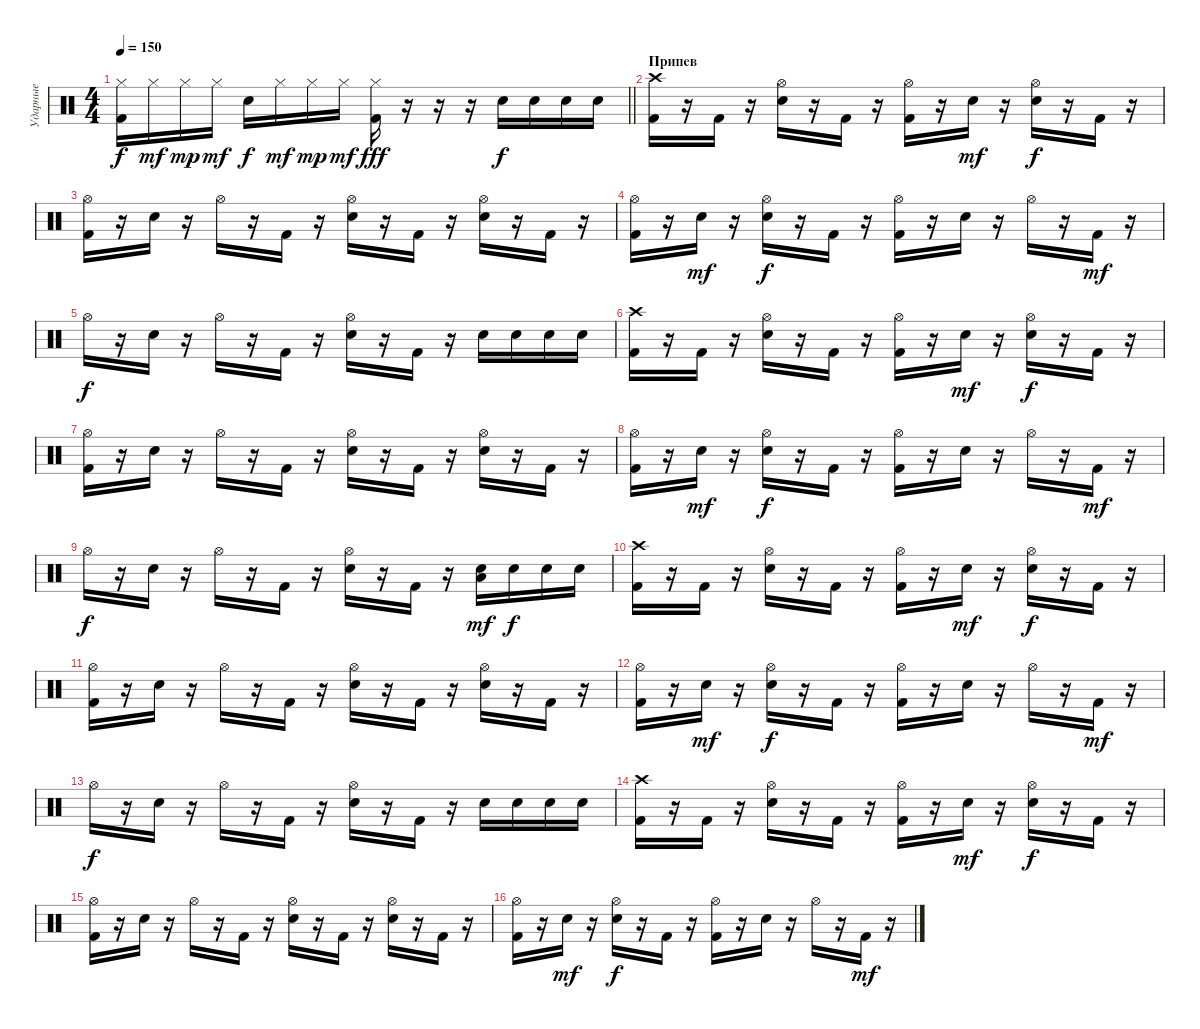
\track ("Ударные" "Ударные") {instrument percussion}
\staff {score}
\articulation defaults
\ts (4 4)
\tempo 150
\clef neutral
\barLineRight lightlight
\ks c
("Hi-Hat (closed)" "Kick (hit) 2").16{dy f} "Hi-Hat (closed)".16{dy mf} "Hi-Hat (closed)".16{dy mp} "Hi-Hat (closed)".16{dy mf} "Electric Snare (hit)".16{dy f} "Hi-Hat (closed)".16{dy mf} "Hi-Hat (closed)".16{dy mp} "Hi-Hat (closed)".16{dy mf} ("Hi-Hat (closed)" "Kick (hit) 2").16{dy fff} r.16 r.16 r.16 "Electric Snare (hit)".16{dy f} "Electric Snare (hit)".16 "Electric Snare (hit)".16 "Electric Snare (hit)".16 |
\section ("" "Припев")
("Crash high (hit)" "Kick (hit) 2").16 r.16 "Kick (hit) 2".16 r.16 ("Hi-Hat (open)" "Electric Snare (hit)").16 r.16 "Kick (hit) 2".16 r.16 ("Hi-Hat (open)" "Kick (hit) 2").16 r.16 "Electric Snare (hit)".16{dy mf} r.16 ("Hi-Hat (open)" "Electric Snare (hit)").16{dy f} r.16 "Kick (hit) 2".16 r.16 |
("Hi-Hat (open)" "Kick (hit) 2").16 r.16 "Electric Snare (hit)".16 r.16 "Hi-Hat (open)".16 r.16 "Kick (hit) 2".16 r.16 ("Hi-Hat (open)" "Electric Snare (hit)").16 r.16 "Kick (hit) 2".16 r.16 ("Hi-Hat (open)" "Electric Snare (hit)").16 r.16 "Kick (hit) 2".16 r.16 |
("Hi-Hat (open)" "Kick (hit) 2").16 r.16 "Electric Snare (hit)".16{dy mf} r.16 ("Hi-Hat (open)" "Electric Snare (hit)").16{dy f} r.16 "Kick (hit) 2".16 r.16 ("Hi-Hat (open)" "Kick (hit) 2").16 r.16 "Electric Snare (hit)".16 r.16 "Hi-Hat (open)".16 r.16 "Kick (hit) 2".16{dy mf} r.16 |
"Hi-Hat (open)".16{dy f} r.16 "Electric Snare (hit)".16 r.16 "Hi-Hat (open)".16 r.16 "Kick (hit) 2".16 r.16 ("Hi-Hat (open)" "Electric Snare (hit)").16 r.16 "Kick (hit) 2".16 r.16 "Electric Snare (hit)".16 "Electric Snare (hit)".16 "Electric Snare (hit)".16 "Electric Snare (hit)".16 |
("Crash high (hit)" "Kick (hit) 2").16 r.16 "Kick (hit) 2".16 r.16 ("Hi-Hat (open)" "Electric Snare (hit)").16 r.16 "Kick (hit) 2".16 r.16 ("Hi-Hat (open)" "Kick (hit) 2").16 r.16 "Electric Snare (hit)".16{dy mf} r.16 ("Hi-Hat (open)" "Electric Snare (hit)").16{dy f} r.16 "Kick (hit) 2".16 r.16 |
("Hi-Hat (open)" "Kick (hit) 2").16 r.16 "Electric Snare (hit)".16 r.16 "Hi-Hat (open)".16 r.16 "Kick (hit) 2".16 r.16 ("Hi-Hat (open)" "Electric Snare (hit)").16 r.16 "Kick (hit) 2".16 r.16 ("Hi-Hat (open)" "Electric Snare (hit)").16 r.16 "Kick (hit) 2".16 r.16 |
("Hi-Hat (open)" "Kick (hit) 2").16 r.16 "Electric Snare (hit)".16{dy mf} r.16 ("Hi-Hat (open)" "Electric Snare (hit)").16{dy f} r.16 "Kick (hit) 2".16 r.16 ("Hi-Hat (open)" "Kick (hit) 2").16 r.16 "Electric Snare (hit)".16 r.16 "Hi-Hat (open)".16 r.16 "Kick (hit) 2".16{dy mf} r.16 |
"Hi-Hat (open)".16{dy f} r.16 "Electric Snare (hit)".16 r.16 "Hi-Hat (open)".16 r.16 "Kick (hit) 2".16 r.16 ("Hi-Hat (open)" "Electric Snare (hit)").16 r.16 "Kick (hit) 2".16 r.16 ("Low Tom (hit)" "Electric Snare (hit)").16{dy mf} "Electric Snare (hit)".16{dy f} "Electric Snare (hit)".16 "Electric Snare (hit)".16 |
("Crash high (hit)" "Kick (hit) 2").16 r.16 "Kick (hit) 2".16 r.16 ("Hi-Hat (open)" "Electric Snare (hit)").16 r.16 "Kick (hit) 2".16 r.16 ("Hi-Hat (open)" "Kick (hit) 2").16 r.16 "Electric Snare (hit)".16{dy mf} r.16 ("Hi-Hat (open)" "Electric Snare (hit)").16{dy f} r.16 "Kick (hit) 2".16 r.16 |
("Hi-Hat (open)" "Kick (hit) 2").16 r.16 "Electric Snare (hit)".16 r.16 "Hi-Hat (open)".16 r.16 "Kick (hit) 2".16 r.16 ("Hi-Hat (open)" "Electric Snare (hit)").16 r.16 "Kick (hit) 2".16 r.16 ("Hi-Hat (open)" "Electric Snare (hit)").16 r.16 "Kick (hit) 2".16 r.16 |
("Hi-Hat (open)" "Kick (hit) 2").16 r.16 "Electric Snare (hit)".16{dy mf} r.16 ("Hi-Hat (open)" "Electric Snare (hit)").16{dy f} r.16 "Kick (hit) 2".16 r.16 ("Hi-Hat (open)" "Kick (hit) 2").16 r.16 "Electric Snare (hit)".16 r.16 "Hi-Hat (open)".16 r.16 "Kick (hit) 2".16{dy mf} r.16 |
"Hi-Hat (open)".16{dy f} r.16 "Electric Snare (hit)".16 r.16 "Hi-Hat (open)".16 r.16 "Kick (hit) 2".16 r.16 ("Hi-Hat (open)" "Electric Snare (hit)").16 r.16 "Kick (hit) 2".16 r.16 "Electric Snare (hit)".16 "Electric Snare (hit)".16 "Electric Snare (hit)".16 "Electric Snare (hit)".16 |
("Crash high (hit)" "Kick (hit) 2").16 r.16 "Kick (hit) 2".16 r.16 ("Hi-Hat (open)" "Electric Snare (hit)").16 r.16 "Kick (hit) 2".16 r.16 ("Hi-Hat (open)" "Kick (hit) 2").16 r.16 "Electric Snare (hit)".16{dy mf} r.16 ("Hi-Hat (open)" "Electric Snare (hit)").16{dy f} r.16 "Kick (hit) 2".16 r.16 |
("Hi-Hat (open)" "Kick (hit) 2").16 r.16 "Electric Snare (hit)".16 r.16 "Hi-Hat (open)".16 r.16 "Kick (hit) 2".16 r.16 ("Hi-Hat (open)" "Electric Snare (hit)").16 r.16 "Kick (hit) 2".16 r.16 ("Hi-Hat (open)" "Electric Snare (hit)").16 r.16 "Kick (hit) 2".16 r.16 |
("Hi-Hat (open)" "Kick (hit) 2").16 r.16 "Electric Snare (hit)".16{dy mf} r.16 ("Hi-Hat (open)" "Electric Snare (hit)").16{dy f} r.16 "Kick (hit) 2".16 r.16 ("Hi-Hat (open)" "Kick (hit) 2").16 r.16 "Electric Snare (hit)".16 r.16 "Hi-Hat (open)".16 r.16 "Kick (hit) 2".16{dy mf} r.16
